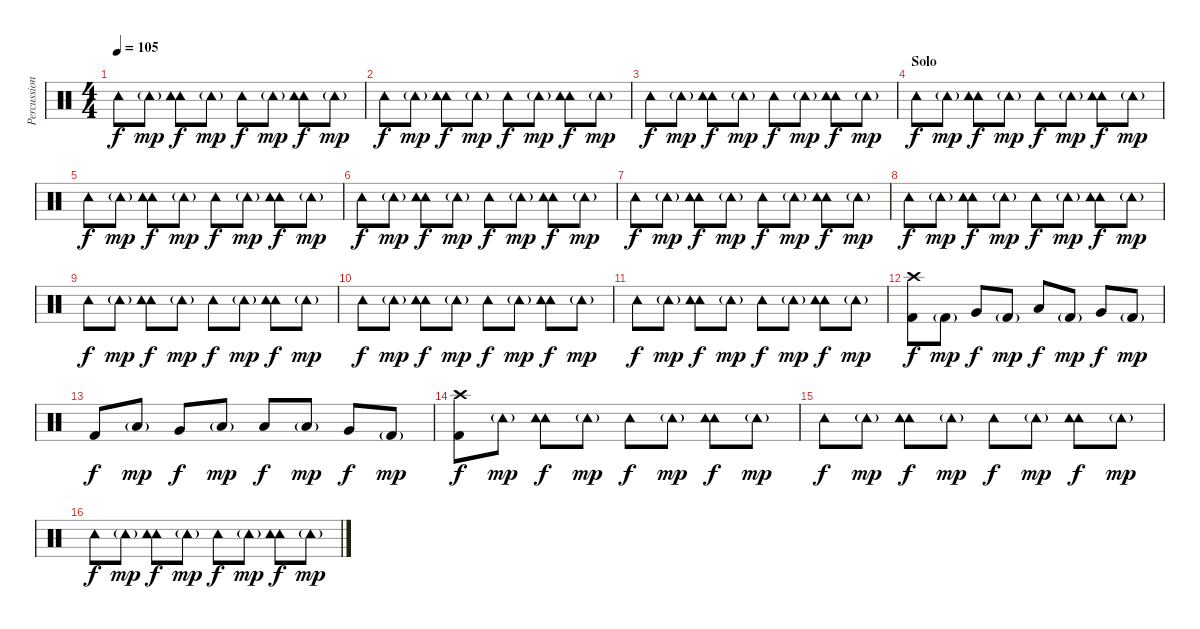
\track ("Percussion" "Percussion") {instrument percussion}
\staff {score}
\articulation defaults
\ts (4 4)
\tempo 105
\clef neutral
\ks c "Tambourine (hit)".8{dy f} "Tambourine (hit)"{g}.8{dy mp}
("Tambourine (hit)" "Tambourine (hit)").8{dy f} "Tambourine (hit)"{g}.8{dy mp} "Tambourine (hit)".8{dy f} "Tambourine (hit)"{g}.8{dy mp} ("Tambourine (hit)" "Tambourine (hit)").8{dy f} "Tambourine (hit)"{g}.8{dy mp} |
"Tambourine (hit)".8{dy f} "Tambourine (hit)"{g}.8{dy mp} ("Tambourine (hit)" "Tambourine (hit)").8{dy f} "Tambourine (hit)"{g}.8{dy mp} "Tambourine (hit)".8{dy f} "Tambourine (hit)"{g}.8{dy mp} ("Tambourine (hit)" "Tambourine (hit)").8{dy f} "Tambourine (hit)"{g}.8{dy mp} |
"Tambourine (hit)".8{dy f} "Tambourine (hit)"{g}.8{dy mp} ("Tambourine (hit)" "Tambourine (hit)").8{dy f} "Tambourine (hit)"{g}.8{dy mp} "Tambourine (hit)".8{dy f} "Tambourine (hit)"{g}.8{dy mp} ("Tambourine (hit)" "Tambourine (hit)").8{dy f} "Tambourine (hit)"{g}.8{dy mp} |
\section ("" "Solo")
"Tambourine (hit)".8{dy f} "Tambourine (hit)"{g}.8{dy mp} ("Tambourine (hit)" "Tambourine (hit)").8{dy f} "Tambourine (hit)"{g}.8{dy mp} "Tambourine (hit)".8{dy f} "Tambourine (hit)"{g}.8{dy mp} ("Tambourine (hit)" "Tambourine (hit)").8{dy f} "Tambourine (hit)"{g}.8{dy mp} |
"Tambourine (hit)".8{dy f} "Tambourine (hit)"{g}.8{dy mp} ("Tambourine (hit)" "Tambourine (hit)").8{dy f} "Tambourine (hit)"{g}.8{dy mp} "Tambourine (hit)".8{dy f} "Tambourine (hit)"{g}.8{dy mp} ("Tambourine (hit)" "Tambourine (hit)").8{dy f} "Tambourine (hit)"{g}.8{dy mp} |
"Tambourine (hit)".8{dy f} "Tambourine (hit)"{g}.8{dy mp} ("Tambourine (hit)" "Tambourine (hit)").8{dy f} "Tambourine (hit)"{g}.8{dy mp} "Tambourine (hit)".8{dy f} "Tambourine (hit)"{g}.8{dy mp} ("Tambourine (hit)" "Tambourine (hit)").8{dy f} "Tambourine (hit)"{g}.8{dy mp} |
"Tambourine (hit)".8{dy f} "Tambourine (hit)"{g}.8{dy mp} ("Tambourine (hit)" "Tambourine (hit)").8{dy f} "Tambourine (hit)"{g}.8{dy mp} "Tambourine (hit)".8{dy f} "Tambourine (hit)"{g}.8{dy mp} ("Tambourine (hit)" "Tambourine (hit)").8{dy f} "Tambourine (hit)"{g}.8{dy mp} |
"Tambourine (hit)".8{dy f} "Tambourine (hit)"{g}.8{dy mp} ("Tambourine (hit)" "Tambourine (hit)").8{dy f} "Tambourine (hit)"{g}.8{dy mp} "Tambourine (hit)".8{dy f} "Tambourine (hit)"{g}.8{dy mp} ("Tambourine (hit)" "Tambourine (hit)").8{dy f} "Tambourine (hit)"{g}.8{dy mp} |
"Tambourine (hit)".8{dy f} "Tambourine (hit)"{g}.8{dy mp} ("Tambourine (hit)" "Tambourine (hit)").8{dy f} "Tambourine (hit)"{g}.8{dy mp} "Tambourine (hit)".8{dy f} "Tambourine (hit)"{g}.8{dy mp} ("Tambourine (hit)" "Tambourine (hit)").8{dy f} "Tambourine (hit)"{g}.8{dy mp} |
"Tambourine (hit)".8{dy f} "Tambourine (hit)"{g}.8{dy mp} ("Tambourine (hit)" "Tambourine (hit)").8{dy f} "Tambourine (hit)"{g}.8{dy mp} "Tambourine (hit)".8{dy f} "Tambourine (hit)"{g}.8{dy mp} ("Tambourine (hit)" "Tambourine (hit)").8{dy f} "Tambourine (hit)"{g}.8{dy mp} |
"Tambourine (hit)".8{dy f} "Tambourine (hit)"{g}.8{dy mp} ("Tambourine (hit)" "Tambourine (hit)").8{dy f} "Tambourine (hit)"{g}.8{dy mp} "Tambourine (hit)".8{dy f} "Tambourine (hit)"{g}.8{dy mp} ("Tambourine (hit)" "Tambourine (hit)").8{dy f} "Tambourine (hit)"{g}.8{dy mp} |
("Kick (hit) 2" "Crash high (hit)").8{dy f} "Kick (hit) 2"{g}.8{dy mp} "Very Low Tom (hit)".8{dy f} "Kick (hit) 2"{g}.8{dy mp} "Low Floor Tom (hit)".8{dy f} "Kick (hit) 2"{g}.8{dy mp} "Very Low Tom (hit)".8{dy f} "Kick (hit) 2"{g}.8{dy mp} |
"Kick (hit) 2".8{dy f} "Low Tom (hit)"{g}.8{dy mp} "Very Low Tom (hit)".8{dy f} "Low Tom (hit)"{g}.8{dy mp} "Low Floor Tom (hit)".8{dy f} "Low Tom (hit)"{g}.8{dy mp} "Very Low Tom (hit)".8{dy f} "Kick (hit) 2"{g}.8{dy mp} |
("Kick (hit) 2" "Crash high (hit)").8{dy f} "Tambourine (hit)"{g}.8{dy mp} ("Tambourine (hit)" "Tambourine (hit)").8{dy f} "Tambourine (hit)"{g}.8{dy mp} "Tambourine (hit)".8{dy f} "Tambourine (hit)"{g}.8{dy mp} ("Tambourine (hit)" "Tambourine (hit)").8{dy f} "Tambourine (hit)"{g}.8{dy mp} |
"Tambourine (hit)".8{dy f} "Tambourine (hit)"{g}.8{dy mp} ("Tambourine (hit)" "Tambourine (hit)").8{dy f} "Tambourine (hit)"{g}.8{dy mp} "Tambourine (hit)".8{dy f} "Tambourine (hit)"{g}.8{dy mp} ("Tambourine (hit)" "Tambourine (hit)").8{dy f} "Tambourine (hit)"{g}.8{dy mp} |
"Tambourine (hit)".8{dy f} "Tambourine (hit)"{g}.8{dy mp} ("Tambourine (hit)" "Tambourine (hit)").8{dy f} "Tambourine (hit)"{g}.8{dy mp} "Tambourine (hit)".8{dy f} "Tambourine (hit)"{g}.8{dy mp} ("Tambourine (hit)" "Tambourine (hit)").8{dy f} "Tambourine (hit)"{g}.8{dy mp}
